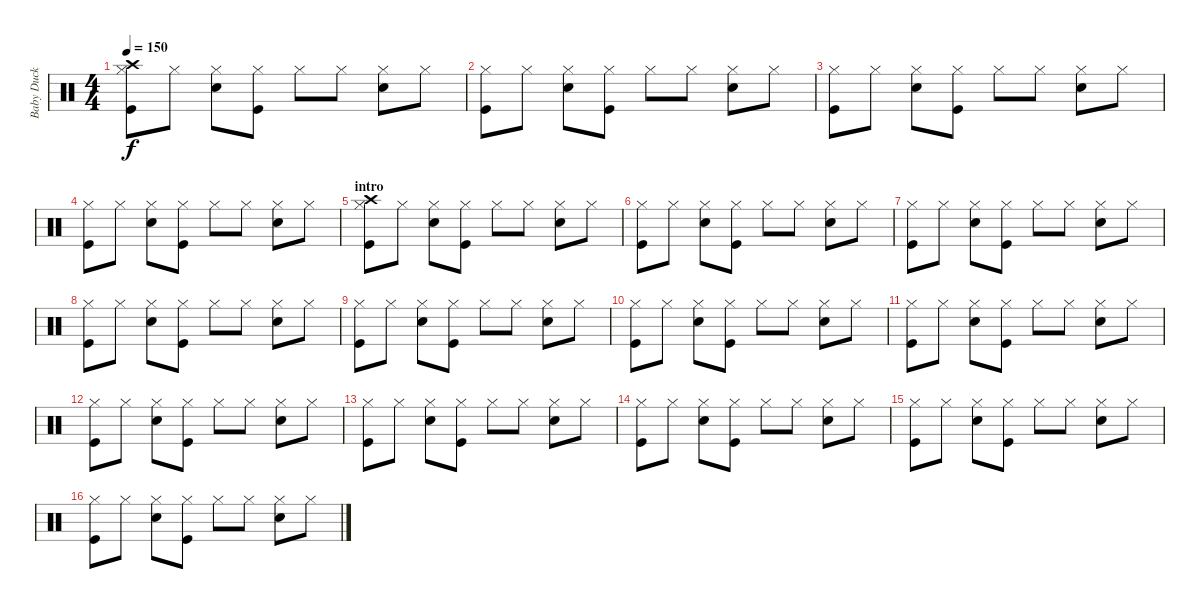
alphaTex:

\track ("Baby Duck" "Baby Duck") {instrument percussion}
\staff {score}
\articulation defaults
\ts (4 4)
\section ("" "")
\tempo 150
\clef neutral
\ks c
("Kick (hit)" "Hi-Hat (closed)" "Crash high (hit)").8{dy f} "Hi-Hat (closed)".8 ("Electric Snare (hit)" "Hi-Hat (closed)").8 ("Kick (hit)" "Hi-Hat (closed)").8 "Hi-Hat (closed)".8 "Hi-Hat (closed)".8 ("Electric Snare (hit)" "Hi-Hat (closed)").8 "Hi-Hat (closed)".8 |
("Kick (hit)" "Hi-Hat (closed)").8 "Hi-Hat (closed)".8 ("Electric Snare (hit)" "Hi-Hat (closed)").8 ("Kick (hit)" "Hi-Hat (closed)").8 "Hi-Hat (closed)".8 "Hi-Hat (closed)".8 ("Electric Snare (hit)" "Hi-Hat (closed)").8 "Hi-Hat (closed)".8 |
("Kick (hit)" "Hi-Hat (closed)").8 "Hi-Hat (closed)".8 ("Electric Snare (hit)" "Hi-Hat (closed)").8 ("Kick (hit)" "Hi-Hat (closed)").8 "Hi-Hat (closed)".8 "Hi-Hat (closed)".8 ("Electric Snare (hit)" "Hi-Hat (closed)").8 "Hi-Hat (closed)".8 |
("Kick (hit)" "Hi-Hat (closed)").8 "Hi-Hat (closed)".8 ("Electric Snare (hit)" "Hi-Hat (closed)").8 ("Kick (hit)" "Hi-Hat (closed)").8 "Hi-Hat (closed)".8 "Hi-Hat (closed)".8 ("Electric Snare (hit)" "Hi-Hat (closed)").8 "Hi-Hat (closed)".8 |
\section ("" "intro")
("Kick (hit)" "Hi-Hat (closed)" "Crash high (hit)").8 "Hi-Hat (closed)".8 ("Electric Snare (hit)" "Hi-Hat (closed)").8 ("Kick (hit)" "Hi-Hat (closed)").8 "Hi-Hat (closed)".8 "Hi-Hat (closed)".8 ("Electric Snare (hit)" "Hi-Hat (closed)").8 "Hi-Hat (closed)".8 |
("Kick (hit)" "Hi-Hat (closed)").8 "Hi-Hat (closed)".8 ("Electric Snare (hit)" "Hi-Hat (closed)").8 ("Kick (hit)" "Hi-Hat (closed)").8 "Hi-Hat (closed)".8 "Hi-Hat (closed)".8 ("Electric Snare (hit)" "Hi-Hat (closed)").8 "Hi-Hat (closed)".8 |
("Kick (hit)" "Hi-Hat (closed)").8 "Hi-Hat (closed)".8 ("Electric Snare (hit)" "Hi-Hat (closed)").8 ("Kick (hit)" "Hi-Hat (closed)").8 "Hi-Hat (closed)".8 "Hi-Hat (closed)".8 ("Electric Snare (hit)" "Hi-Hat (closed)").8 "Hi-Hat (closed)".8 |
("Kick (hit)" "Hi-Hat (closed)").8 "Hi-Hat (closed)".8 ("Electric Snare (hit)" "Hi-Hat (closed)").8 ("Kick (hit)" "Hi-Hat (closed)").8 "Hi-Hat (closed)".8 "Hi-Hat (closed)".8 ("Electric Snare (hit)" "Hi-Hat (closed)").8 "Hi-Hat (closed)".8 |
\section ("" "")
("Kick (hit)" "Hi-Hat (closed)").8 "Hi-Hat (closed)".8 ("Electric Snare (hit)" "Hi-Hat (closed)").8 ("Kick (hit)" "Hi-Hat (closed)").8 "Hi-Hat (closed)".8 "Hi-Hat (closed)".8 ("Electric Snare (hit)" "Hi-Hat (closed)").8 "Hi-Hat (closed)".8 |
("Kick (hit)" "Hi-Hat (closed)").8 "Hi-Hat (closed)".8 ("Electric Snare (hit)" "Hi-Hat (closed)").8 ("Kick (hit)" "Hi-Hat (closed)").8 "Hi-Hat (closed)".8 "Hi-Hat (closed)".8 ("Electric Snare (hit)" "Hi-Hat (closed)").8 "Hi-Hat (closed)".8 |
("Kick (hit)" "Hi-Hat (closed)").8 "Hi-Hat (closed)".8 ("Electric Snare (hit)" "Hi-Hat (closed)").8 ("Kick (hit)" "Hi-Hat (closed)").8 "Hi-Hat (closed)".8 "Hi-Hat (closed)".8 ("Electric Snare (hit)" "Hi-Hat (closed)").8 "Hi-Hat (closed)".8 |
("Kick (hit)" "Hi-Hat (closed)").8 "Hi-Hat (closed)".8 ("Electric Snare (hit)" "Hi-Hat (closed)").8 ("Kick (hit)" "Hi-Hat (closed)").8 "Hi-Hat (closed)".8 "Hi-Hat (closed)".8 ("Electric Snare (hit)" "Hi-Hat (closed)").8 "Hi-Hat (closed)".8 |
\section ("" "")
("Kick (hit)" "Hi-Hat (closed)").8 "Hi-Hat (closed)".8 ("Electric Snare (hit)" "Hi-Hat (closed)").8 ("Kick (hit)" "Hi-Hat (closed)").8 "Hi-Hat (closed)".8 "Hi-Hat (closed)".8 ("Electric Snare (hit)" "Hi-Hat (closed)").8 "Hi-Hat (closed)".8 |
("Kick (hit)" "Hi-Hat (closed)").8 "Hi-Hat (closed)".8 ("Electric Snare (hit)" "Hi-Hat (closed)").8 ("Kick (hit)" "Hi-Hat (closed)").8 "Hi-Hat (closed)".8 "Hi-Hat (closed)".8 ("Electric Snare (hit)" "Hi-Hat (closed)").8 "Hi-Hat (closed)".8 |
("Kick (hit)" "Hi-Hat (closed)").8 "Hi-Hat (closed)".8 ("Electric Snare (hit)" "Hi-Hat (closed)").8 ("Kick (hit)" "Hi-Hat (closed)").8 "Hi-Hat (closed)".8 "Hi-Hat (closed)".8 ("Electric Snare (hit)" "Hi-Hat (closed)").8 "Hi-Hat (closed)".8 |
("Kick (hit)" "Hi-Hat (closed)").8 "Hi-Hat (closed)".8 ("Electric Snare (hit)" "Hi-Hat (closed)").8 ("Kick (hit)" "Hi-Hat (closed)").8 "Hi-Hat (closed)".8 "Hi-Hat (closed)".8 ("Electric Snare (hit)" "Hi-Hat (closed)").8 "Hi-Hat (closed)".8
